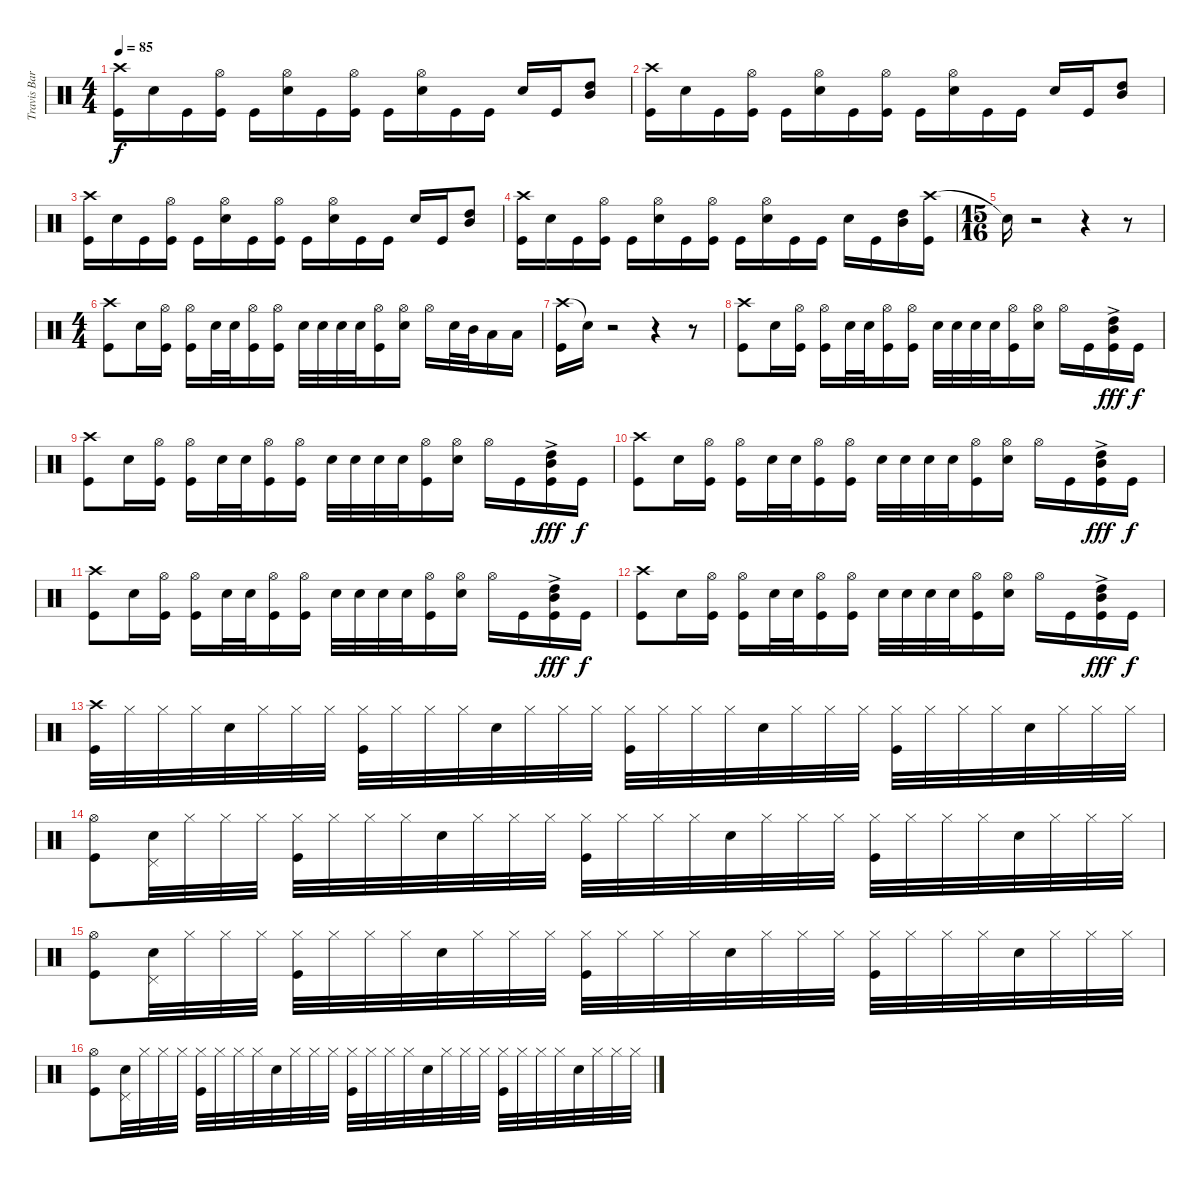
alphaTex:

\track ("Travis Barker" "Travis Bar") {instrument percussion}
\staff {score}
\articulation defaults
\ts (4 4)
\tempo 85
\clef neutral
\ks c
("Crash high (hit)" "Kick (hit)").16{dy f} "Electric Snare (hit)".16 "Kick (hit)".16 ("Hi-Hat (open)" "Kick (hit)").16 "Kick (hit)".16 ("Hi-Hat (open)" "Electric Snare (hit)").16 "Kick (hit)".16 ("Hi-Hat (open)" "Kick (hit)").16 "Kick (hit)".16 ("Hi-Hat (open)" "Electric Snare (hit)").16 "Kick (hit)".16 "Kick (hit)".16 "Electric Snare (hit)".16 "Kick (hit)".16 ("High Tom (hit)" "Mid Tom (hit)").8 |
("Crash high (hit)" "Kick (hit)").16 "Electric Snare (hit)".16 "Kick (hit)".16 ("Hi-Hat (open)" "Kick (hit)").16 "Kick (hit)".16 ("Hi-Hat (open)" "Electric Snare (hit)").16 "Kick (hit)".16 ("Hi-Hat (open)" "Kick (hit)").16 "Kick (hit)".16 ("Hi-Hat (open)" "Electric Snare (hit)").16 "Kick (hit)".16 "Kick (hit)".16 "Electric Snare (hit)".16 "Kick (hit)".16 ("High Tom (hit)" "Mid Tom (hit)").8 |
("Crash high (hit)" "Kick (hit)").16 "Electric Snare (hit)".16 "Kick (hit)".16 ("Hi-Hat (open)" "Kick (hit)").16 "Kick (hit)".16 ("Hi-Hat (open)" "Electric Snare (hit)").16 "Kick (hit)".16 ("Hi-Hat (open)" "Kick (hit)").16 "Kick (hit)".16 ("Hi-Hat (open)" "Electric Snare (hit)").16 "Kick (hit)".16 "Kick (hit)".16 "Electric Snare (hit)".16 "Kick (hit)".16 ("High Tom (hit)" "Mid Tom (hit)").8 |
("Crash high (hit)" "Kick (hit)").16 "Electric Snare (hit)".16 "Kick (hit)".16 ("Hi-Hat (open)" "Kick (hit)").16 "Kick (hit)".16 ("Hi-Hat (open)" "Electric Snare (hit)").16 "Kick (hit)".16 ("Hi-Hat (open)" "Kick (hit)").16 "Kick (hit)".16 ("Hi-Hat (open)" "Electric Snare (hit)").16 "Kick (hit)".16 "Kick (hit)".16 "Electric Snare (hit)".16 "Kick (hit)".16 ("High Tom (hit)" "Mid Tom (hit)").16 ("Crash high (hit)" "Kick (hit)").16 |
\ts (15 16)
"Snare (hit)"{t}.16{volume 0} r.2 r.4 r.8 |
\ts (4 4)
("Crash high (hit)" "Kick (hit)").8{volume 13} "Electric Snare (hit)".16 ("Hi-Hat (open)" "Kick (hit)").16 ("Hi-Hat (open)" "Kick (hit)").16 "Electric Snare (hit)".32 "Electric Snare (hit)".32 ("Hi-Hat (open)" "Kick (hit)").16 ("Hi-Hat (open)" "Kick (hit)").16 "Electric Snare (hit)".32 "Electric Snare (hit)".32 "Electric Snare (hit)".32 "Electric Snare (hit)".32 ("Hi-Hat (open)" "Kick (hit)").16 ("Hi-Hat (open)" "Electric Snare (hit)").16 "Hi-Hat (open)".16 "Electric Snare (hit)".32 "Mid Tom (hit)".32 "Low Tom (hit)".16 "Low Tom (hit)".16 |
("Crash high (hit)" "Kick (hit)").16 "Snare (hit)"{t}.16{volume 0} r.2 r.4 r.8 |
("Crash high (hit)" "Kick (hit)").8{volume 15} "Electric Snare (hit)".16 ("Hi-Hat (open)" "Kick (hit)").16 ("Hi-Hat (open)" "Kick (hit)").16 "Electric Snare (hit)".32 "Electric Snare (hit)".32 ("Hi-Hat (open)" "Kick (hit)").16 ("Hi-Hat (open)" "Kick (hit)").16 "Electric Snare (hit)".32 "Electric Snare (hit)".32 "Electric Snare (hit)".32 "Electric Snare (hit)".32 ("Hi-Hat (open)" "Kick (hit)").16 ("Hi-Hat (open)" "Electric Snare (hit)").16 "Hi-Hat (open)".16 "Kick (hit)".16 ("High Tom (hit)"{ac} "Mid Tom (hit)"{ac} "Kick (hit)").16{dy fff} "Kick (hit)".16{dy f} |
("Crash high (hit)" "Kick (hit)").8 "Electric Snare (hit)".16 ("Hi-Hat (open)" "Kick (hit)").16 ("Hi-Hat (open)" "Kick (hit)").16 "Electric Snare (hit)".32 "Electric Snare (hit)".32 ("Hi-Hat (open)" "Kick (hit)").16 ("Hi-Hat (open)" "Kick (hit)").16 "Electric Snare (hit)".32 "Electric Snare (hit)".32 "Electric Snare (hit)".32 "Electric Snare (hit)".32 ("Hi-Hat (open)" "Kick (hit)").16 ("Hi-Hat (open)" "Electric Snare (hit)").16 "Hi-Hat (open)".16 "Kick (hit)".16 ("High Tom (hit)"{ac} "Mid Tom (hit)"{ac} "Kick (hit)").16{dy fff} "Kick (hit)".16{dy f} |
("Crash high (hit)" "Kick (hit)").8 "Electric Snare (hit)".16 ("Hi-Hat (open)" "Kick (hit)").16 ("Hi-Hat (open)" "Kick (hit)").16 "Electric Snare (hit)".32 "Electric Snare (hit)".32 ("Hi-Hat (open)" "Kick (hit)").16 ("Hi-Hat (open)" "Kick (hit)").16 "Electric Snare (hit)".32 "Electric Snare (hit)".32 "Electric Snare (hit)".32 "Electric Snare (hit)".32 ("Hi-Hat (open)" "Kick (hit)").16 ("Hi-Hat (open)" "Electric Snare (hit)").16 "Hi-Hat (open)".16 "Kick (hit)".16 ("High Tom (hit)"{ac} "Mid Tom (hit)"{ac} "Kick (hit)").16{dy fff} "Kick (hit)".16{dy f} |
("Crash high (hit)" "Kick (hit)").8 "Electric Snare (hit)".16 ("Hi-Hat (open)" "Kick (hit)").16 ("Hi-Hat (open)" "Kick (hit)").16 "Electric Snare (hit)".32 "Electric Snare (hit)".32 ("Hi-Hat (open)" "Kick (hit)").16 ("Hi-Hat (open)" "Kick (hit)").16 "Electric Snare (hit)".32 "Electric Snare (hit)".32 "Electric Snare (hit)".32 "Electric Snare (hit)".32 ("Hi-Hat (open)" "Kick (hit)").16 ("Hi-Hat (open)" "Electric Snare (hit)").16 "Hi-Hat (open)".16 "Kick (hit)".16 ("High Tom (hit)"{ac} "Mid Tom (hit)"{ac} "Kick (hit)").16{dy fff} "Kick (hit)".16{dy f} |
("Crash high (hit)" "Kick (hit)").8 "Electric Snare (hit)".16 ("Hi-Hat (open)" "Kick (hit)").16 ("Hi-Hat (open)" "Kick (hit)").16 "Electric Snare (hit)".32 "Electric Snare (hit)".32 ("Hi-Hat (open)" "Kick (hit)").16 ("Hi-Hat (open)" "Kick (hit)").16 "Electric Snare (hit)".32 "Electric Snare (hit)".32 "Electric Snare (hit)".32 "Electric Snare (hit)".32 ("Hi-Hat (open)" "Kick (hit)").16 ("Hi-Hat (open)" "Electric Snare (hit)").16 "Hi-Hat (open)".16 "Kick (hit)".16 ("High Tom (hit)"{ac} "Mid Tom (hit)"{ac} "Kick (hit)").16{dy fff} "Kick (hit)".16{dy f} |
("Crash high (hit)" "Kick (hit)").32 "Hi-Hat (closed)".32 "Hi-Hat (closed)".32 "Hi-Hat (closed)".32 "Electric Snare (hit)".32 "Hi-Hat (closed)".32 "Hi-Hat (closed)".32 "Hi-Hat (closed)".32 ("Hi-Hat (closed)" "Kick (hit)").32 "Hi-Hat (closed)".32 "Hi-Hat (closed)".32 "Hi-Hat (closed)".32 "Electric Snare (hit)".32 "Hi-Hat (closed)".32 "Hi-Hat (closed)".32 "Hi-Hat (closed)".32 ("Hi-Hat (closed)" "Kick (hit)").32 "Hi-Hat (closed)".32 "Hi-Hat (closed)".32 "Hi-Hat (closed)".32 "Electric Snare (hit)".32 "Hi-Hat (closed)".32 "Hi-Hat (closed)".32 "Hi-Hat (closed)".32 ("Hi-Hat (closed)" "Kick (hit)").32 "Hi-Hat (closed)".32 "Hi-Hat (closed)".32 "Hi-Hat (closed)".32 "Electric Snare (hit)".32 "Hi-Hat (closed)".32 "Hi-Hat (closed)".32 "Hi-Hat (closed)".32 |
("Hi-Hat (open)" "Kick (hit)").8 ("Electric Snare (hit)" "Pedal Hi-Hat (hit)").32 "Hi-Hat (closed)".32 "Hi-Hat (closed)".32 "Hi-Hat (closed)".32 ("Hi-Hat (closed)" "Kick (hit)").32 "Hi-Hat (closed)".32 "Hi-Hat (closed)".32 "Hi-Hat (closed)".32 "Electric Snare (hit)".32 "Hi-Hat (closed)".32 "Hi-Hat (closed)".32 "Hi-Hat (closed)".32 ("Hi-Hat (closed)" "Kick (hit)").32 "Hi-Hat (closed)".32 "Hi-Hat (closed)".32 "Hi-Hat (closed)".32 "Electric Snare (hit)".32 "Hi-Hat (closed)".32 "Hi-Hat (closed)".32 "Hi-Hat (closed)".32 ("Hi-Hat (closed)" "Kick (hit)").32 "Hi-Hat (closed)".32 "Hi-Hat (closed)".32 "Hi-Hat (closed)".32 "Electric Snare (hit)".32 "Hi-Hat (closed)".32 "Hi-Hat (closed)".32 "Hi-Hat (closed)".32 |
("Hi-Hat (open)" "Kick (hit)").8 ("Electric Snare (hit)" "Pedal Hi-Hat (hit)").32 "Hi-Hat (closed)".32 "Hi-Hat (closed)".32 "Hi-Hat (closed)".32 ("Hi-Hat (closed)" "Kick (hit)").32 "Hi-Hat (closed)".32 "Hi-Hat (closed)".32 "Hi-Hat (closed)".32 "Electric Snare (hit)".32 "Hi-Hat (closed)".32 "Hi-Hat (closed)".32 "Hi-Hat (closed)".32 ("Hi-Hat (closed)" "Kick (hit)").32 "Hi-Hat (closed)".32 "Hi-Hat (closed)".32 "Hi-Hat (closed)".32 "Electric Snare (hit)".32 "Hi-Hat (closed)".32 "Hi-Hat (closed)".32 "Hi-Hat (closed)".32 ("Hi-Hat (closed)" "Kick (hit)").32 "Hi-Hat (closed)".32 "Hi-Hat (closed)".32 "Hi-Hat (closed)".32 "Electric Snare (hit)".32 "Hi-Hat (closed)".32 "Hi-Hat (closed)".32 "Hi-Hat (closed)".32 |
("Hi-Hat (open)" "Kick (hit)").8 ("Electric Snare (hit)" "Pedal Hi-Hat (hit)").32 "Hi-Hat (closed)".32 "Hi-Hat (closed)".32 "Hi-Hat (closed)".32 ("Hi-Hat (closed)" "Kick (hit)").32 "Hi-Hat (closed)".32 "Hi-Hat (closed)".32 "Hi-Hat (closed)".32 "Electric Snare (hit)".32 "Hi-Hat (closed)".32 "Hi-Hat (closed)".32 "Hi-Hat (closed)".32 ("Hi-Hat (closed)" "Kick (hit)").32 "Hi-Hat (closed)".32 "Hi-Hat (closed)".32 "Hi-Hat (closed)".32 "Electric Snare (hit)".32 "Hi-Hat (closed)".32 "Hi-Hat (closed)".32 "Hi-Hat (closed)".32 ("Hi-Hat (closed)" "Kick (hit)").32 "Hi-Hat (closed)".32 "Hi-Hat (closed)".32 "Hi-Hat (closed)".32 "Electric Snare (hit)".32 "Hi-Hat (closed)".32 "Hi-Hat (closed)".32 "Hi-Hat (closed)".32
